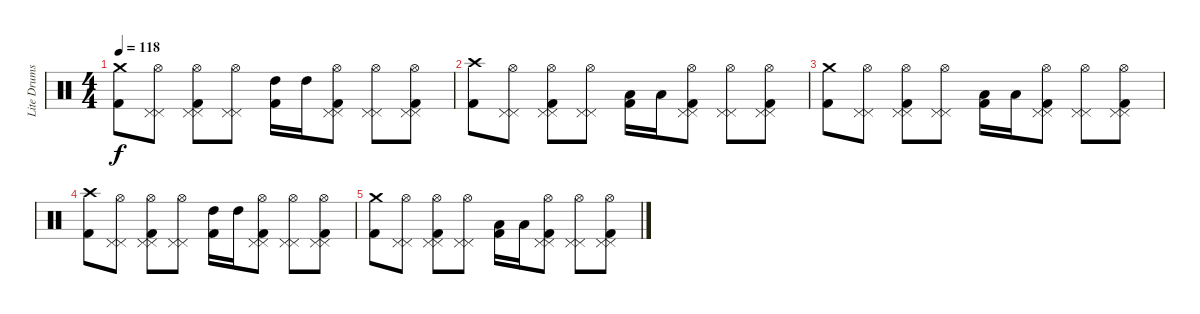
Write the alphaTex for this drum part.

\track ("Lite Drums" "Lite Drums") {instrument percussion}
\staff {score}
\articulation defaults
\ts (4 4)
\tempo 118
\clef neutral
\ks c
("Crash medium (hit)" "Kick (hit) 2").8{dy f} ("Pedal Hi-Hat (hit)" "Hi-Hat (open)" "Pedal Hi-Hat (hit)").8 ("Pedal Hi-Hat (hit)" "Hi-Hat (open)" "Pedal Hi-Hat (hit)" "Kick (hit) 2").8 ("Pedal Hi-Hat (hit)" "Hi-Hat (open)" "Pedal Hi-Hat (hit)").8 ("High Tom (hit)" "Kick (hit) 2").16 "High Tom (hit)".16 ("Pedal Hi-Hat (hit)" "Hi-Hat (open)" "Pedal Hi-Hat (hit)" "Kick (hit) 2").8 ("Pedal Hi-Hat (hit)" "Hi-Hat (open)" "Pedal Hi-Hat (hit)").8 ("Pedal Hi-Hat (hit)" "Hi-Hat (open)" "Pedal Hi-Hat (hit)" "Kick (hit) 2").8 |
("Crash high (hit)" "Kick (hit) 2").8 ("Pedal Hi-Hat (hit)" "Hi-Hat (open)" "Pedal Hi-Hat (hit)").8 ("Pedal Hi-Hat (hit)" "Hi-Hat (open)" "Pedal Hi-Hat (hit)" "Kick (hit) 2").8 ("Pedal Hi-Hat (hit)" "Hi-Hat (open)" "Pedal Hi-Hat (hit)").8 ("Low Tom (hit)" "Kick (hit) 2").16 "Low Tom (hit)".16 ("Pedal Hi-Hat (hit)" "Hi-Hat (open)" "Pedal Hi-Hat (hit)" "Kick (hit) 2").8 ("Pedal Hi-Hat (hit)" "Hi-Hat (open)" "Pedal Hi-Hat (hit)").8 ("Pedal Hi-Hat (hit)" "Hi-Hat (open)" "Pedal Hi-Hat (hit)" "Kick (hit) 2").8 |
("Crash medium (hit)" "Kick (hit) 2").8 ("Pedal Hi-Hat (hit)" "Hi-Hat (open)" "Pedal Hi-Hat (hit)").8 ("Pedal Hi-Hat (hit)" "Hi-Hat (open)" "Pedal Hi-Hat (hit)" "Kick (hit) 2").8 ("Pedal Hi-Hat (hit)" "Hi-Hat (open)" "Pedal Hi-Hat (hit)").8 ("Low Tom (hit)" "Kick (hit) 2").16 "Low Tom (hit)".16 ("Pedal Hi-Hat (hit)" "Hi-Hat (open)" "Pedal Hi-Hat (hit)" "Kick (hit) 2").8 ("Pedal Hi-Hat (hit)" "Hi-Hat (open)" "Pedal Hi-Hat (hit)").8 ("Pedal Hi-Hat (hit)" "Hi-Hat (open)" "Pedal Hi-Hat (hit)" "Kick (hit) 2").8 |
("Crash high (hit)" "Kick (hit) 2").8 ("Pedal Hi-Hat (hit)" "Hi-Hat (open)" "Pedal Hi-Hat (hit)").8 ("Pedal Hi-Hat (hit)" "Hi-Hat (open)" "Pedal Hi-Hat (hit)" "Kick (hit) 2").8 ("Pedal Hi-Hat (hit)" "Hi-Hat (open)" "Pedal Hi-Hat (hit)").8 ("High Tom (hit)" "Kick (hit) 2").16 "High Tom (hit)".16 ("Pedal Hi-Hat (hit)" "Hi-Hat (open)" "Pedal Hi-Hat (hit)" "Kick (hit) 2").8 ("Pedal Hi-Hat (hit)" "Hi-Hat (open)" "Pedal Hi-Hat (hit)").8 ("Pedal Hi-Hat (hit)" "Hi-Hat (open)" "Pedal Hi-Hat (hit)" "Kick (hit) 2").8 |
("Crash medium (hit)" "Kick (hit) 2").8 ("Pedal Hi-Hat (hit)" "Hi-Hat (open)" "Pedal Hi-Hat (hit)").8 ("Pedal Hi-Hat (hit)" "Hi-Hat (open)" "Pedal Hi-Hat (hit)" "Kick (hit) 2").8 ("Pedal Hi-Hat (hit)" "Hi-Hat (open)" "Pedal Hi-Hat (hit)").8 ("Low Tom (hit)" "Kick (hit) 2").16 "Low Tom (hit)".16 ("Pedal Hi-Hat (hit)" "Hi-Hat (open)" "Pedal Hi-Hat (hit)" "Kick (hit) 2").8 ("Pedal Hi-Hat (hit)" "Hi-Hat (open)" "Pedal Hi-Hat (hit)").8 ("Pedal Hi-Hat (hit)" "Hi-Hat (open)" "Pedal Hi-Hat (hit)" "Kick (hit) 2").8
